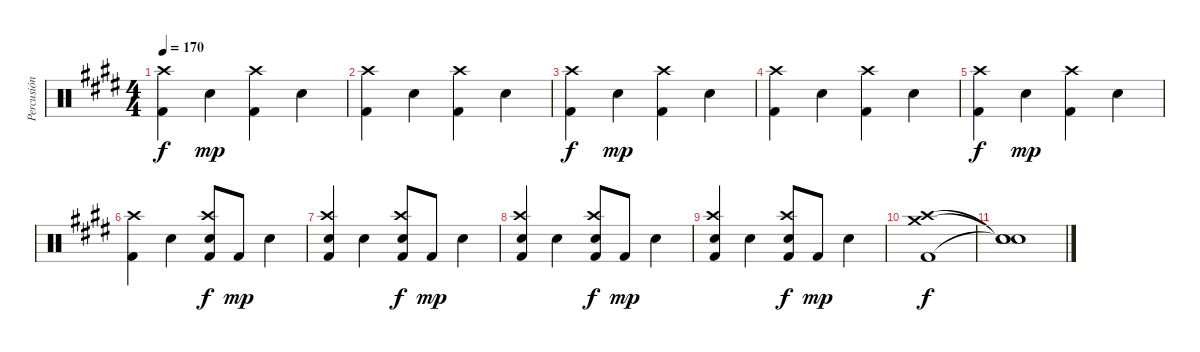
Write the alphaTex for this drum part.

\track ("Percusión" "Percusión") {instrument percussion}
\staff {score}
\articulation defaults
\ts (4 4)
\tempo 170
\clef neutral
\ks e
("Kick (hit) 2" "Crash high (hit)").4{dy f} "Snare (hit) 2".4{dy mp} ("Kick (hit) 2" "Crash high (hit)").4 "Snare (hit) 2".4 |
("Kick (hit) 2" "Crash high (hit)").4 "Snare (hit) 2".4 ("Kick (hit) 2" "Crash high (hit)").4 "Snare (hit) 2".4 |
("Kick (hit) 2" "Crash high (hit)").4{dy f} "Snare (hit) 2".4{dy mp} ("Kick (hit) 2" "Crash high (hit)").4 "Snare (hit) 2".4 |
("Kick (hit) 2" "Crash high (hit)").4 "Snare (hit) 2".4 ("Kick (hit) 2" "Crash high (hit)").4 "Snare (hit) 2".4 |
("Kick (hit) 2" "Crash high (hit)").4{dy f} "Snare (hit) 2".4{dy mp} ("Kick (hit) 2" "Crash high (hit)").4 "Snare (hit) 2".4 |
("Kick (hit) 2" "Crash high (hit)").4 "Snare (hit) 2".4 ("Kick (hit) 2" "Crash high (hit)" "Snare (hit) 2").8{dy f} "Kick (hit) 2".8{dy mp} "Snare (hit) 2".4 |
("Kick (hit) 2" "Crash high (hit)" "Snare (hit) 2").4 "Snare (hit) 2".4 ("Kick (hit) 2" "Crash high (hit)" "Snare (hit) 2").8{dy f} "Kick (hit) 2".8{dy mp} "Snare (hit) 2".4 |
("Kick (hit) 2" "Crash high (hit)" "Snare (hit) 2").4 "Snare (hit) 2".4 ("Kick (hit) 2" "Crash high (hit)" "Snare (hit) 2").8{dy f} "Kick (hit) 2".8{dy mp} "Snare (hit) 2".4 |
("Kick (hit) 2" "Crash high (hit)" "Snare (hit) 2").4 "Snare (hit) 2".4 ("Kick (hit) 2" "Crash high (hit)" "Snare (hit) 2").8{dy f} "Kick (hit) 2".8{dy mp} "Snare (hit) 2".4 |
("Crash medium (hit)" "Crash high (hit)" "Kick (hit) 2").1{dy f} |
("Snare (hit)"{t} "Snare (hit)"{t} "Snare (hit)"{t}).1
